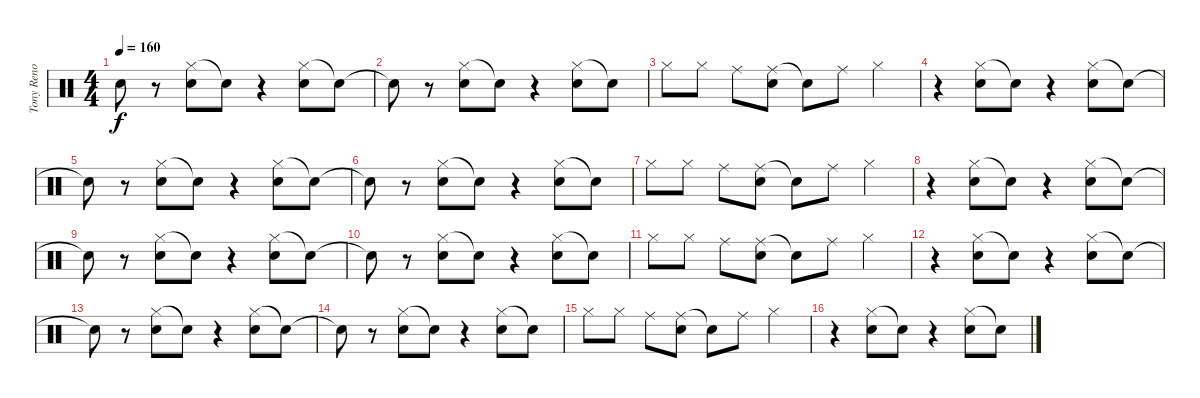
\track ("Tony Reno" "Tony Reno") {instrument percussion}
\staff {score}
\articulation defaults
\ts (4 4)
\tempo 160
\clef neutral
\ks c "Snare (hit)"{t}.8{dy f}
r.8 ("Hi-Hat (closed)" "Snare (hit) 2").8 "Snare (hit)"{t}.8 r.4 ("Hi-Hat (closed)" "Snare (hit) 2").8 "Snare (hit)"{t}.8 |
"Snare (hit)"{t}.8 r.8 ("Hi-Hat (closed)" "Snare (hit) 2").8 "Snare (hit)"{t}.8 r.4 ("Hi-Hat (closed)" "Snare (hit) 2").8 "Snare (hit)"{t}.8 |
"Hi-Hat (closed)".8 "Hi-Hat (closed)".8 "Ride (middle)".8 ("Ride (middle)" "Snare (hit) 2").8 "Snare (hit)"{t}.8 "Ride (middle)".8 "Hi-Hat (closed)".4 |
r.4 ("Hi-Hat (closed)" "Snare (hit) 2").8 "Snare (hit)"{t}.8 r.4 ("Hi-Hat (closed)" "Snare (hit) 2").8 "Snare (hit)"{t}.8 |
"Snare (hit)"{t}.8 r.8 ("Hi-Hat (closed)" "Snare (hit) 2").8 "Snare (hit)"{t}.8 r.4 ("Hi-Hat (closed)" "Snare (hit) 2").8 "Snare (hit)"{t}.8 |
"Snare (hit)"{t}.8 r.8 ("Hi-Hat (closed)" "Snare (hit) 2").8 "Snare (hit)"{t}.8 r.4 ("Hi-Hat (closed)" "Snare (hit) 2").8 "Snare (hit)"{t}.8 |
"Hi-Hat (closed)".8 "Hi-Hat (closed)".8 "Ride (middle)".8 ("Ride (middle)" "Snare (hit) 2").8 "Snare (hit)"{t}.8 "Ride (middle)".8 "Hi-Hat (closed)".4 |
r.4 ("Hi-Hat (closed)" "Snare (hit) 2").8 "Snare (hit)"{t}.8 r.4 ("Hi-Hat (closed)" "Snare (hit) 2").8 "Snare (hit)"{t}.8 |
"Snare (hit)"{t}.8 r.8 ("Hi-Hat (closed)" "Snare (hit) 2").8 "Snare (hit)"{t}.8 r.4 ("Hi-Hat (closed)" "Snare (hit) 2").8 "Snare (hit)"{t}.8 |
"Snare (hit)"{t}.8 r.8 ("Hi-Hat (closed)" "Snare (hit) 2").8 "Snare (hit)"{t}.8 r.4 ("Hi-Hat (closed)" "Snare (hit) 2").8 "Snare (hit)"{t}.8 |
"Hi-Hat (closed)".8 "Hi-Hat (closed)".8 "Ride (middle)".8 ("Ride (middle)" "Snare (hit) 2").8 "Snare (hit)"{t}.8 "Ride (middle)".8 "Hi-Hat (closed)".4 |
r.4 ("Hi-Hat (closed)" "Snare (hit) 2").8 "Snare (hit)"{t}.8 r.4 ("Hi-Hat (closed)" "Snare (hit) 2").8 "Snare (hit)"{t}.8 |
"Snare (hit)"{t}.8 r.8 ("Hi-Hat (closed)" "Snare (hit) 2").8 "Snare (hit)"{t}.8 r.4 ("Hi-Hat (closed)" "Snare (hit) 2").8 "Snare (hit)"{t}.8 |
"Snare (hit)"{t}.8 r.8 ("Hi-Hat (closed)" "Snare (hit) 2").8 "Snare (hit)"{t}.8 r.4 ("Hi-Hat (closed)" "Snare (hit) 2").8 "Snare (hit)"{t}.8 |
"Hi-Hat (closed)".8 "Hi-Hat (closed)".8 "Ride (middle)".8 ("Ride (middle)" "Snare (hit) 2").8 "Snare (hit)"{t}.8 "Ride (middle)".8 "Hi-Hat (closed)".4 |
r.4 ("Hi-Hat (closed)" "Snare (hit) 2").8 "Snare (hit)"{t}.8 r.4 ("Hi-Hat (closed)" "Snare (hit) 2").8 "Snare (hit)"{t}.8
